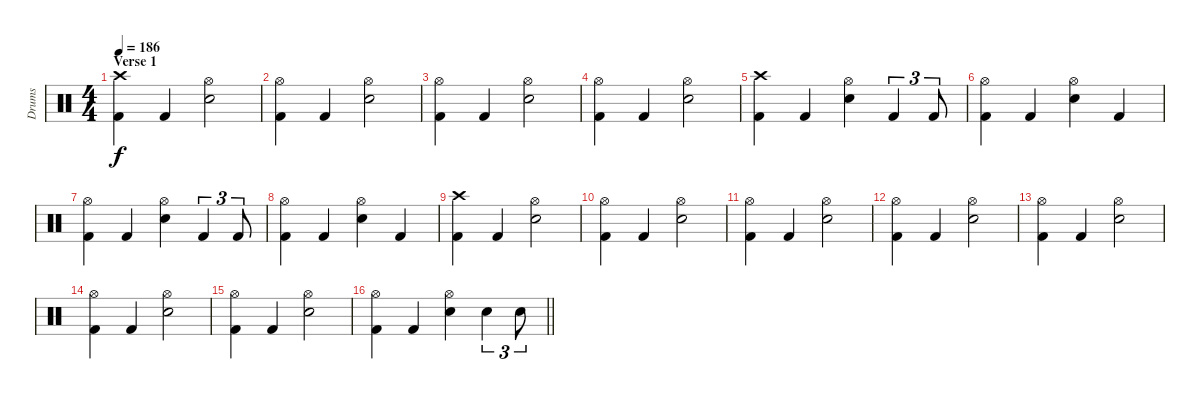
\track ("Drums" "Drums") {instrument percussion}
\staff {score}
\articulation defaults
\ts (4 4)
\section ("" "Verse 1")
\tempo 186
\clef neutral
\ks c
("Crash high (hit)" "Kick (hit) 2").4{dy f} "Kick (hit) 2".4 ("Hi-Hat (open)" "Electric Snare (hit)").2 |
("Hi-Hat (open)" "Kick (hit) 2").4 "Kick (hit) 2".4 ("Hi-Hat (open)" "Electric Snare (hit)").2 |
("Hi-Hat (open)" "Kick (hit) 2").4 "Kick (hit) 2".4 ("Hi-Hat (open)" "Electric Snare (hit)").2 |
("Hi-Hat (open)" "Kick (hit) 2").4 "Kick (hit) 2".4 ("Hi-Hat (open)" "Electric Snare (hit)").2 |
("Crash high (hit)" "Kick (hit) 2").4 "Kick (hit) 2".4 ("Hi-Hat (open)" "Electric Snare (hit)").4 "Kick (hit) 2".4{tu (3 2)} "Kick (hit) 2".8{tu (3 2)} |
("Hi-Hat (open)" "Kick (hit) 2").4 "Kick (hit) 2".4 ("Hi-Hat (open)" "Electric Snare (hit)").4 "Kick (hit) 2".4 |
("Hi-Hat (open)" "Kick (hit) 2").4 "Kick (hit) 2".4 ("Hi-Hat (open)" "Electric Snare (hit)").4 "Kick (hit) 2".4{tu (3 2)} "Kick (hit) 2".8{tu (3 2)} |
("Hi-Hat (open)" "Kick (hit) 2").4 "Kick (hit) 2".4 ("Hi-Hat (open)" "Electric Snare (hit)").4 "Kick (hit) 2".4 |
("Crash high (hit)" "Kick (hit) 2").4 "Kick (hit) 2".4 ("Hi-Hat (open)" "Electric Snare (hit)").2 |
("Hi-Hat (open)" "Kick (hit) 2").4 "Kick (hit) 2".4 ("Hi-Hat (open)" "Electric Snare (hit)").2 |
("Hi-Hat (open)" "Kick (hit) 2").4 "Kick (hit) 2".4 ("Hi-Hat (open)" "Electric Snare (hit)").2 |
("Hi-Hat (open)" "Kick (hit) 2").4 "Kick (hit) 2".4 ("Hi-Hat (open)" "Electric Snare (hit)").2 |
("Hi-Hat (open)" "Kick (hit) 2").4 "Kick (hit) 2".4 ("Hi-Hat (open)" "Electric Snare (hit)").2 |
("Hi-Hat (open)" "Kick (hit) 2").4 "Kick (hit) 2".4 ("Hi-Hat (open)" "Electric Snare (hit)").2 |
("Hi-Hat (open)" "Kick (hit) 2").4 "Kick (hit) 2".4 ("Hi-Hat (open)" "Electric Snare (hit)").2 |
\barLineRight lightlight
("Hi-Hat (open)" "Kick (hit) 2").4 "Kick (hit) 2".4 ("Hi-Hat (open)" "Electric Snare (hit)").4 "Electric Snare (hit)".4{tu (3 2)} "Electric Snare (hit)".8{tu (3 2)}
